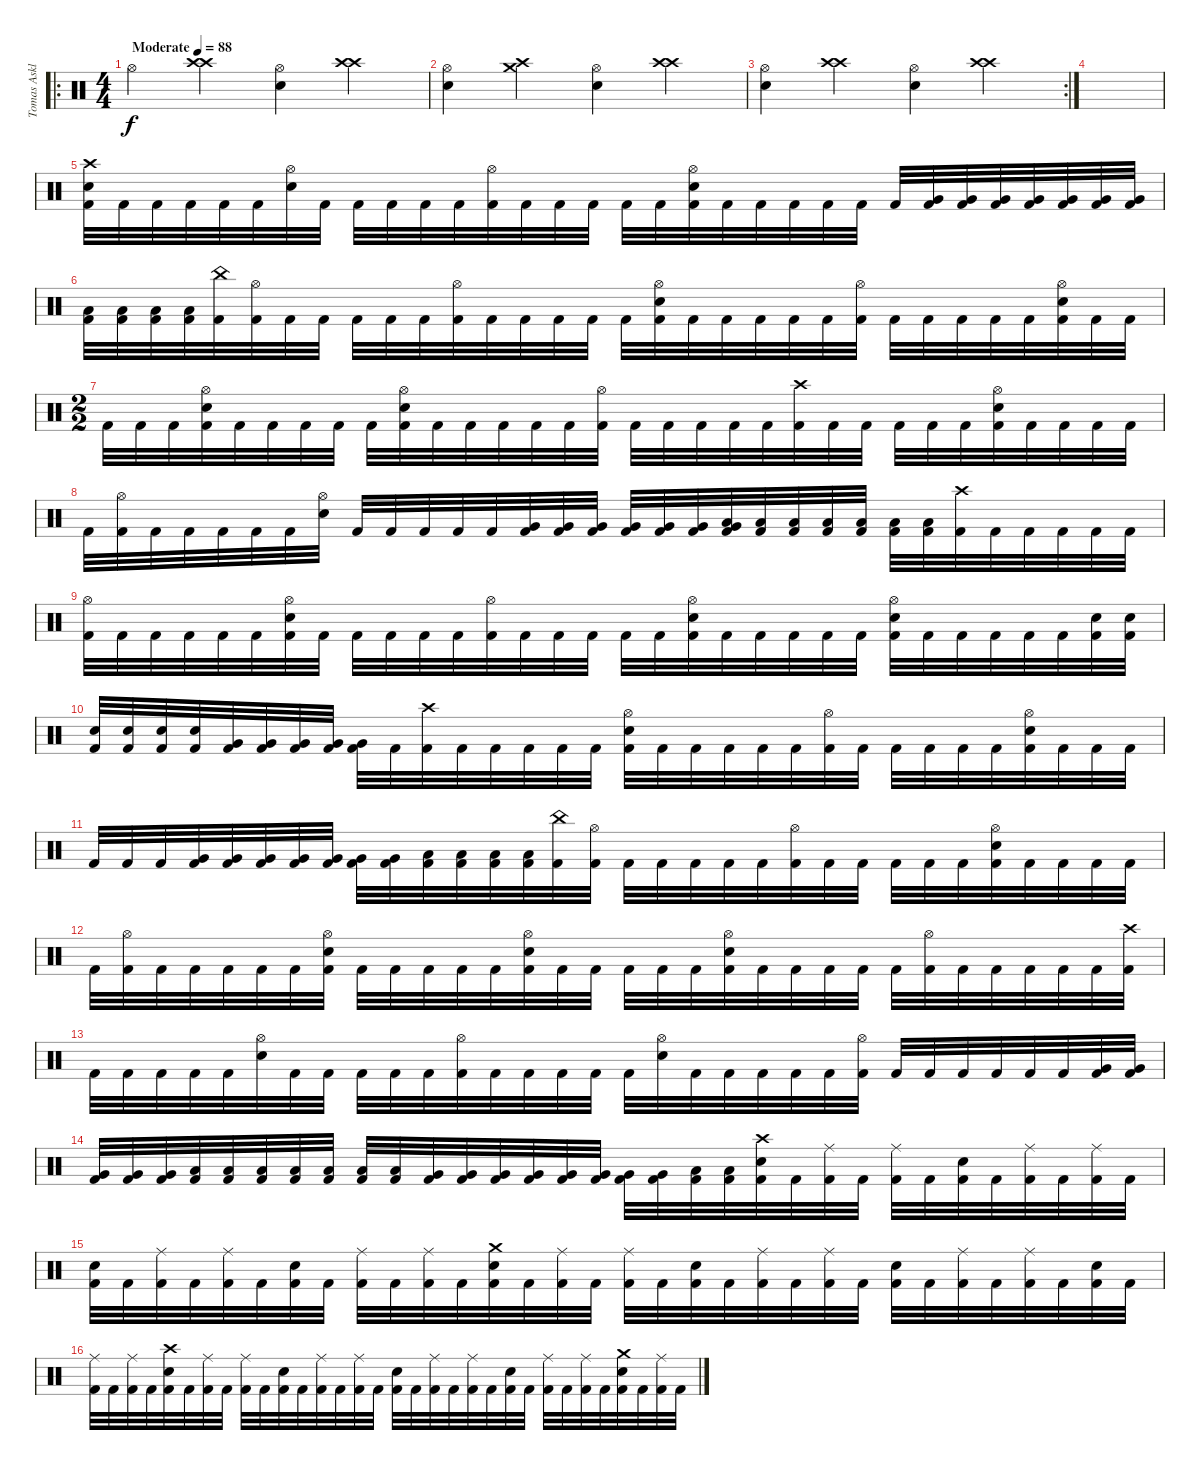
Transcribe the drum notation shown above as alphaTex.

\track ("Tomas Asklund" "Tomas Askl") {instrument percussion}
\staff {score}
\articulation defaults
\ro
\ts (4 4)
\tempo (88 "Moderate")
\clef neutral
\ks c "Hi-Hat (open)".4{dy f volume 1}
("Crash high (hit)" "Crash high (hit)").4{volume 16} ("Hi-Hat (open)" "Electric Snare (hit)").4{volume 4} ("Crash high (hit)" "Crash high (hit)").4{volume 16} |
("Hi-Hat (open)" "Electric Snare (hit)").4{volume 4} ("Crash high (hit)" "Crash medium (hit)").4{volume 16} ("Hi-Hat (open)" "Electric Snare (hit)").4{volume 4} ("Crash high (hit)" "Crash high (hit)").4{volume 16} |
\rc 2
("Hi-Hat (open)" "Electric Snare (hit)").4{volume 4} ("Crash high (hit)" "Crash high (hit)").4{volume 16} ("Hi-Hat (open)" "Electric Snare (hit)").4{volume 4} ("Crash high (hit)" "Crash high (hit)").4{volume 16} |
|
("Crash high (hit)" "Snare (hit) 2" "Kick (hit) 2").32 "Kick (hit) 2".32 "Kick (hit) 2".32 "Kick (hit) 2".32 "Kick (hit) 2".32 "Kick (hit) 2".32 ("Hi-Hat (open)" "Snare (hit) 2").32 "Kick (hit) 2".32 "Kick (hit) 2".32 "Kick (hit) 2".32 "Kick (hit) 2".32 "Kick (hit) 2".32 ("Hi-Hat (open)" "Kick (hit) 2").32 "Kick (hit) 2".32 "Kick (hit) 2".32 "Kick (hit) 2".32 "Kick (hit) 2".32 "Kick (hit) 2".32 ("Hi-Hat (open)" "Snare (hit) 2" "Kick (hit) 2").32 "Kick (hit) 2".32 "Kick (hit) 2".32 "Kick (hit) 2".32 "Kick (hit) 2".32 "Kick (hit) 2".32 "Kick (hit) 2".32 ("Very Low Tom (hit)" "Kick (hit) 2").32 ("Very Low Tom (hit)" "Kick (hit) 2").32 ("Very Low Tom (hit)" "Kick (hit) 2").32 ("Very Low Tom (hit)" "Kick (hit) 2").32 ("Very Low Tom (hit)" "Kick (hit) 2").32 ("Very Low Tom (hit)" "Kick (hit) 2").32 ("Very Low Tom (hit)" "Kick (hit) 2").32 |
("Low Tom (hit)" "Kick (hit) 2").32 ("Low Tom (hit)" "Kick (hit) 2").32 ("Low Tom (hit)" "Kick (hit) 2").32 ("Low Tom (hit)" "Kick (hit) 2").32 ("China (hit)" "Kick (hit) 2").32 ("Hi-Hat (open)" "Kick (hit) 2").32 "Kick (hit) 2".32 "Kick (hit) 2".32 "Kick (hit) 2".32 "Kick (hit) 2".32 "Kick (hit) 2".32 ("Hi-Hat (open)" "Kick (hit) 2").32 "Kick (hit) 2".32 "Kick (hit) 2".32 "Kick (hit) 2".32 "Kick (hit) 2".32 "Kick (hit) 2".32 ("Hi-Hat (open)" "Snare (hit) 2" "Kick (hit) 2").32 "Kick (hit) 2".32 "Kick (hit) 2".32 "Kick (hit) 2".32 "Kick (hit) 2".32 "Kick (hit) 2".32 ("Hi-Hat (open)" "Kick (hit) 2").32 "Kick (hit) 2".32 "Kick (hit) 2".32 "Kick (hit) 2".32 "Kick (hit) 2".32 "Kick (hit) 2".32 ("Hi-Hat (open)" "Snare (hit) 2" "Kick (hit) 2").32 "Kick (hit) 2".32 "Kick (hit) 2".32 |
\ts (2 2)
"Kick (hit) 2".32 "Kick (hit) 2".32 "Kick (hit) 2".32 ("Hi-Hat (open)" "Snare (hit) 2" "Kick (hit) 2").32 "Kick (hit) 2".32 "Kick (hit) 2".32 "Kick (hit) 2".32 "Kick (hit) 2".32 "Kick (hit) 2".32 ("Hi-Hat (open)" "Snare (hit) 2" "Kick (hit) 2").32 "Kick (hit) 2".32 "Kick (hit) 2".32 "Kick (hit) 2".32 "Kick (hit) 2".32 "Kick (hit) 2".32 ("Hi-Hat (open)" "Kick (hit) 2").32 "Kick (hit) 2".32 "Kick (hit) 2".32 "Kick (hit) 2".32 "Kick (hit) 2".32 "Kick (hit) 2".32 ("Crash high (hit)" "Kick (hit) 2").32 "Kick (hit) 2".32 "Kick (hit) 2".32 "Kick (hit) 2".32 "Kick (hit) 2".32 "Kick (hit) 2".32 ("Hi-Hat (open)" "Snare (hit) 2" "Kick (hit) 2").32 "Kick (hit) 2".32 "Kick (hit) 2".32 "Kick (hit) 2".32 "Kick (hit) 2".32 |
"Kick (hit) 2".32 ("Hi-Hat (open)" "Kick (hit) 2").32 "Kick (hit) 2".32 "Kick (hit) 2".32 "Kick (hit) 2".32 "Kick (hit) 2".32 "Kick (hit) 2".32 ("Hi-Hat (open)" "Snare (hit) 2").32 "Kick (hit) 2".32 "Kick (hit) 2".32 "Kick (hit) 2".32 "Kick (hit) 2".32 "Kick (hit) 2".32 ("Very Low Tom (hit)" "Kick (hit) 2").32 ("Very Low Tom (hit)" "Kick (hit) 2").32 ("Very Low Tom (hit)" "Kick (hit) 2").32 ("Very Low Tom (hit)" "Kick (hit) 2").32 ("Very Low Tom (hit)" "Kick (hit) 2").32 ("Very Low Tom (hit)" "Kick (hit) 2").32 ("Low Tom (hit)" "Very Low Tom (hit)" "Kick (hit) 2").32 ("Low Tom (hit)" "Kick (hit) 2").32 ("Low Tom (hit)" "Kick (hit) 2").32 ("Low Tom (hit)" "Kick (hit) 2").32 ("Low Tom (hit)" "Kick (hit) 2").32 ("Low Tom (hit)" "Kick (hit) 2").32 ("Low Tom (hit)" "Kick (hit) 2").32 ("Crash high (hit)" "Kick (hit) 2").32 "Kick (hit) 2".32 "Kick (hit) 2".32 "Kick (hit) 2".32 "Kick (hit) 2".32 "Kick (hit) 2".32 |
("Hi-Hat (open)" "Kick (hit) 2").32 "Kick (hit) 2".32 "Kick (hit) 2".32 "Kick (hit) 2".32 "Kick (hit) 2".32 "Kick (hit) 2".32 ("Hi-Hat (open)" "Snare (hit) 2" "Kick (hit) 2").32 "Kick (hit) 2".32 "Kick (hit) 2".32 "Kick (hit) 2".32 "Kick (hit) 2".32 "Kick (hit) 2".32 ("Hi-Hat (open)" "Kick (hit) 2").32 "Kick (hit) 2".32 "Kick (hit) 2".32 "Kick (hit) 2".32 "Kick (hit) 2".32 "Kick (hit) 2".32 ("Hi-Hat (open)" "Snare (hit) 2" "Kick (hit) 2").32 "Kick (hit) 2".32 "Kick (hit) 2".32 "Kick (hit) 2".32 "Kick (hit) 2".32 "Kick (hit) 2".32 ("Hi-Hat (open)" "Snare (hit) 2" "Kick (hit) 2").32 "Kick (hit) 2".32 "Kick (hit) 2".32 "Kick (hit) 2".32 "Kick (hit) 2".32 "Kick (hit) 2".32 ("Electric Snare (hit)" "Kick (hit) 2").32 ("Electric Snare (hit)" "Kick (hit) 2").32 |
("Electric Snare (hit)" "Kick (hit) 2").32 ("Electric Snare (hit)" "Kick (hit) 2").32 ("Electric Snare (hit)" "Kick (hit) 2").32 ("Electric Snare (hit)" "Kick (hit) 2").32 ("Very Low Tom (hit)" "Kick (hit) 2").32 ("Very Low Tom (hit)" "Kick (hit) 2").32 ("Very Low Tom (hit)" "Kick (hit) 2").32 ("Very Low Tom (hit)" "Kick (hit) 2").32 ("Very Low Tom (hit)" "Kick (hit) 2").32 "Kick (hit) 2".32 ("Crash high (hit)" "Kick (hit) 2").32 "Kick (hit) 2".32 "Kick (hit) 2".32 "Kick (hit) 2".32 "Kick (hit) 2".32 "Kick (hit) 2".32 ("Hi-Hat (open)" "Snare (hit) 2" "Kick (hit) 2").32 "Kick (hit) 2".32 "Kick (hit) 2".32 "Kick (hit) 2".32 "Kick (hit) 2".32 "Kick (hit) 2".32 ("Hi-Hat (open)" "Kick (hit) 2").32 "Kick (hit) 2".32 "Kick (hit) 2".32 "Kick (hit) 2".32 "Kick (hit) 2".32 "Kick (hit) 2".32 ("Hi-Hat (open)" "Snare (hit) 2" "Kick (hit) 2").32 "Kick (hit) 2".32 "Kick (hit) 2".32 "Kick (hit) 2".32 |
"Kick (hit) 2".32 "Kick (hit) 2".32 "Kick (hit) 2".32 ("Very Low Tom (hit)" "Kick (hit) 2").32 ("Very Low Tom (hit)" "Kick (hit) 2").32 ("Very Low Tom (hit)" "Kick (hit) 2").32 ("Very Low Tom (hit)" "Kick (hit) 2").32 ("Very Low Tom (hit)" "Kick (hit) 2").32 ("Very Low Tom (hit)" "Kick (hit) 2").32 ("Very Low Tom (hit)" "Kick (hit) 2").32 ("Low Tom (hit)" "Kick (hit) 2").32 ("Low Tom (hit)" "Kick (hit) 2").32 ("Low Tom (hit)" "Kick (hit) 2").32 ("Low Tom (hit)" "Kick (hit) 2").32 ("China (hit)" "Kick (hit) 2").32 ("Hi-Hat (open)" "Kick (hit) 2").32 "Kick (hit) 2".32 "Kick (hit) 2".32 "Kick (hit) 2".32 "Kick (hit) 2".32 "Kick (hit) 2".32 ("Hi-Hat (open)" "Kick (hit) 2").32 "Kick (hit) 2".32 "Kick (hit) 2".32 "Kick (hit) 2".32 "Kick (hit) 2".32 "Kick (hit) 2".32 ("Hi-Hat (open)" "Snare (hit) 2" "Kick (hit) 2").32 "Kick (hit) 2".32 "Kick (hit) 2".32 "Kick (hit) 2".32 "Kick (hit) 2".32 |
"Kick (hit) 2".32 ("Hi-Hat (open)" "Kick (hit) 2").32 "Kick (hit) 2".32 "Kick (hit) 2".32 "Kick (hit) 2".32 "Kick (hit) 2".32 "Kick (hit) 2".32 ("Hi-Hat (open)" "Snare (hit) 2" "Kick (hit) 2").32 "Kick (hit) 2".32 "Kick (hit) 2".32 "Kick (hit) 2".32 "Kick (hit) 2".32 "Kick (hit) 2".32 ("Hi-Hat (open)" "Snare (hit) 2" "Kick (hit) 2").32 "Kick (hit) 2".32 "Kick (hit) 2".32 "Kick (hit) 2".32 "Kick (hit) 2".32 "Kick (hit) 2".32 ("Hi-Hat (open)" "Snare (hit) 2" "Kick (hit) 2").32 "Kick (hit) 2".32 "Kick (hit) 2".32 "Kick (hit) 2".32 "Kick (hit) 2".32 "Kick (hit) 2".32 ("Hi-Hat (open)" "Kick (hit) 2").32 "Kick (hit) 2".32 "Kick (hit) 2".32 "Kick (hit) 2".32 "Kick (hit) 2".32 "Kick (hit) 2".32 ("Crash high (hit)" "Kick (hit) 2").32 |
"Kick (hit) 2".32 "Kick (hit) 2".32 "Kick (hit) 2".32 "Kick (hit) 2".32 "Kick (hit) 2".32 ("Hi-Hat (open)" "Snare (hit) 2").32 "Kick (hit) 2".32 "Kick (hit) 2".32 "Kick (hit) 2".32 "Kick (hit) 2".32 "Kick (hit) 2".32 ("Hi-Hat (open)" "Kick (hit) 2").32 "Kick (hit) 2".32 "Kick (hit) 2".32 "Kick (hit) 2".32 "Kick (hit) 2".32 "Kick (hit) 2".32 ("Hi-Hat (open)" "Snare (hit) 2").32 "Kick (hit) 2".32 "Kick (hit) 2".32 "Kick (hit) 2".32 "Kick (hit) 2".32 "Kick (hit) 2".32 ("Hi-Hat (open)" "Kick (hit) 2").32 "Kick (hit) 2".32 "Kick (hit) 2".32 "Kick (hit) 2".32 "Kick (hit) 2".32 "Kick (hit) 2".32 "Kick (hit) 2".32 ("Very Low Tom (hit)" "Kick (hit) 2").32 ("Very Low Tom (hit)" "Kick (hit) 2").32 |
("Very Low Tom (hit)" "Kick (hit) 2").32 ("Very Low Tom (hit)" "Kick (hit) 2").32 ("Very Low Tom (hit)" "Kick (hit) 2").32 ("Low Tom (hit)" "Kick (hit) 2").32 ("Low Tom (hit)" "Kick (hit) 2").32 ("Low Tom (hit)" "Kick (hit) 2").32 ("Low Tom (hit)" "Kick (hit) 2").32 ("Low Tom (hit)" "Kick (hit) 2").32 ("Low Tom (hit)" "Kick (hit) 2").32 ("Low Tom (hit)" "Kick (hit) 2").32 ("Very Low Tom (hit)" "Kick (hit) 2").32 ("Very Low Tom (hit)" "Kick (hit) 2").32 ("Very Low Tom (hit)" "Kick (hit) 2").32 ("Very Low Tom (hit)" "Kick (hit) 2").32 ("Very Low Tom (hit)" "Kick (hit) 2").32 ("Very Low Tom (hit)" "Kick (hit) 2").32 ("Very Low Tom (hit)" "Kick (hit) 2").32 ("Very Low Tom (hit)" "Kick (hit) 2").32 ("Low Tom (hit)" "Kick (hit) 2").32 ("Low Tom (hit)" "Kick (hit) 2").32 ("Crash high (hit)" "Snare (hit) 2" "Kick (hit) 2").32 "Kick (hit) 2".32 ("Ride (middle)" "Kick (hit) 2").32 "Kick (hit) 2".32 ("Ride (middle)" "Kick (hit) 2").32 "Kick (hit) 2".32 ("Snare (hit) 2" "Kick (hit) 2").32 "Kick (hit) 2".32 ("Ride (middle)" "Kick (hit) 2").32 "Kick (hit) 2".32 ("Ride (middle)" "Kick (hit) 2").32 "Kick (hit) 2".32 |
("Snare (hit) 2" "Kick (hit) 2").32 "Kick (hit) 2".32 ("Ride (middle)" "Kick (hit) 2").32 "Kick (hit) 2".32 ("Ride (middle)" "Kick (hit) 2").32 "Kick (hit) 2".32 ("Snare (hit) 2" "Kick (hit) 2").32 "Kick (hit) 2".32 ("Ride (middle)" "Kick (hit) 2").32 "Kick (hit) 2".32 ("Ride (middle)" "Kick (hit) 2").32 "Kick (hit) 2".32 ("Crash medium (hit)" "Snare (hit) 2" "Kick (hit) 2").32 "Kick (hit) 2".32 ("Ride (middle)" "Kick (hit) 2").32 "Kick (hit) 2".32 ("Ride (middle)" "Kick (hit) 2").32 "Kick (hit) 2".32 ("Snare (hit) 2" "Kick (hit) 2").32 "Kick (hit) 2".32 ("Ride (middle)" "Kick (hit) 2").32 "Kick (hit) 2".32 ("Ride (middle)" "Kick (hit) 2").32 "Kick (hit) 2".32 ("Snare (hit) 2" "Kick (hit) 2").32 "Kick (hit) 2".32 ("Ride (middle)" "Kick (hit) 2").32 "Kick (hit) 2".32 ("Ride (middle)" "Kick (hit) 2").32 "Kick (hit) 2".32 ("Snare (hit) 2" "Kick (hit) 2").32 "Kick (hit) 2".32 |
("Ride (middle)" "Kick (hit) 2").32 "Kick (hit) 2".32 ("Ride (middle)" "Kick (hit) 2").32 "Kick (hit) 2".32 ("Crash high (hit)" "Snare (hit) 2" "Kick (hit) 2").32 "Kick (hit) 2".32 ("Ride (middle)" "Kick (hit) 2").32 "Kick (hit) 2".32 ("Ride (middle)" "Kick (hit) 2").32 "Kick (hit) 2".32 ("Snare (hit) 2" "Kick (hit) 2").32 "Kick (hit) 2".32 ("Ride (middle)" "Kick (hit) 2").32 "Kick (hit) 2".32 ("Ride (middle)" "Kick (hit) 2").32 "Kick (hit) 2".32 ("Snare (hit) 2" "Kick (hit) 2").32 "Kick (hit) 2".32 ("Ride (middle)" "Kick (hit) 2").32 "Kick (hit) 2".32 ("Ride (middle)" "Kick (hit) 2").32 "Kick (hit) 2".32 ("Snare (hit) 2" "Kick (hit) 2").32 "Kick (hit) 2".32 ("Ride (middle)" "Kick (hit) 2").32 "Kick (hit) 2".32 ("Ride (middle)" "Kick (hit) 2").32 "Kick (hit) 2".32 ("Crash medium (hit)" "Snare (hit) 2" "Kick (hit) 2").32 "Kick (hit) 2".32 ("Ride (middle)" "Kick (hit) 2").32 "Kick (hit) 2".32
